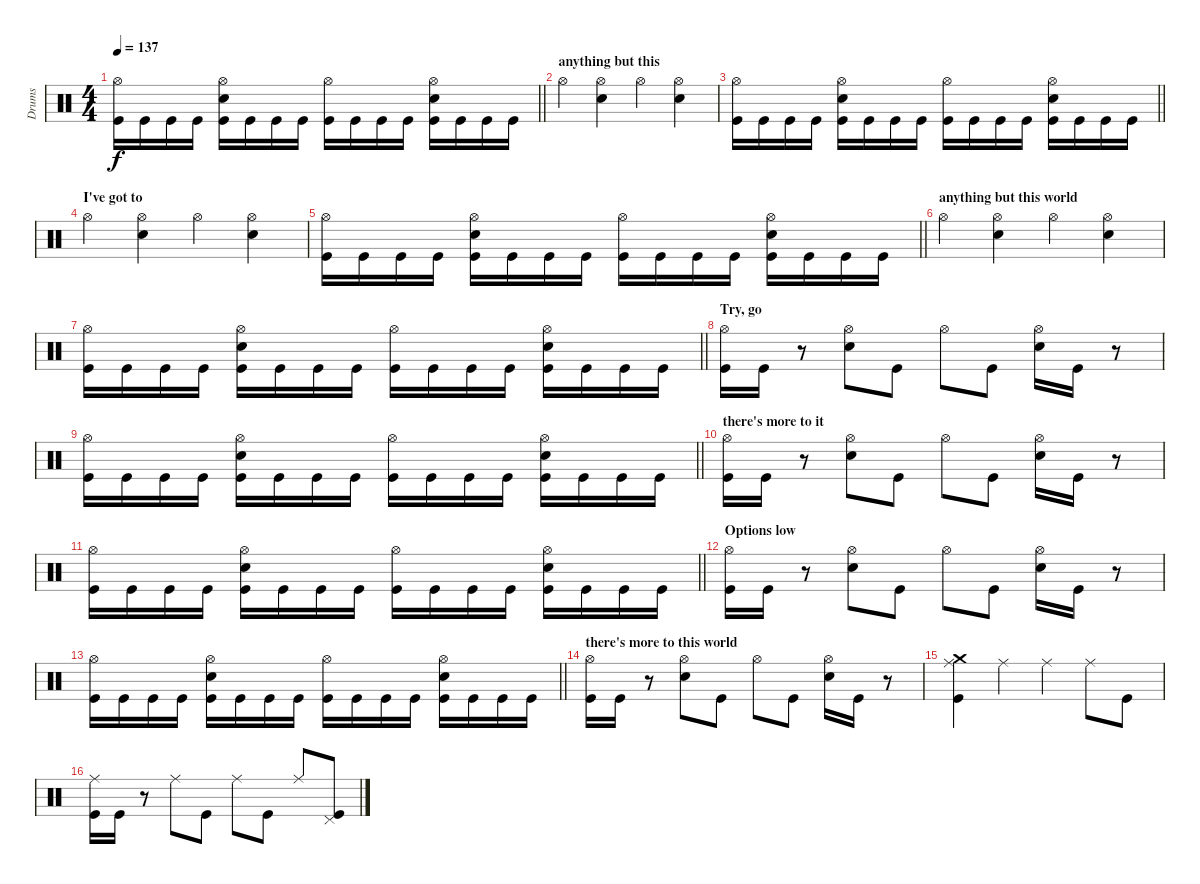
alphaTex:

\track ("Drums" "Drums") {instrument percussion}
\staff {score}
\articulation defaults
\ts (4 4)
\tempo 137
\clef neutral
\barLineRight lightlight
\ks c
("Hi-Hat (open)" "Kick (hit)").16{dy f} "Kick (hit)".16 "Kick (hit)".16 "Kick (hit)".16 ("Hi-Hat (open)" "Snare (hit) 2" "Kick (hit)").16 "Kick (hit)".16 "Kick (hit)".16 "Kick (hit)".16 ("Hi-Hat (open)" "Kick (hit)").16 "Kick (hit)".16 "Kick (hit)".16 "Kick (hit)".16 ("Hi-Hat (open)" "Snare (hit) 2" "Kick (hit)").16 "Kick (hit)".16 "Kick (hit)".16 "Kick (hit)".16 |
\section ("" "anything but this")
"Hi-Hat (open)".4 ("Hi-Hat (open)" "Snare (hit) 2").4 "Hi-Hat (open)".4 ("Hi-Hat (open)" "Snare (hit) 2").4 |
\barLineRight lightlight
("Hi-Hat (open)" "Kick (hit)").16 "Kick (hit)".16 "Kick (hit)".16 "Kick (hit)".16 ("Hi-Hat (open)" "Snare (hit) 2" "Kick (hit)").16 "Kick (hit)".16 "Kick (hit)".16 "Kick (hit)".16 ("Hi-Hat (open)" "Kick (hit)").16 "Kick (hit)".16 "Kick (hit)".16 "Kick (hit)".16 ("Hi-Hat (open)" "Snare (hit) 2" "Kick (hit)").16 "Kick (hit)".16 "Kick (hit)".16 "Kick (hit)".16 |
\section ("" "I've got to ")
"Hi-Hat (open)".4 ("Hi-Hat (open)" "Snare (hit) 2").4 "Hi-Hat (open)".4 ("Hi-Hat (open)" "Snare (hit) 2").4 |
\barLineRight lightlight
("Hi-Hat (open)" "Kick (hit)").16 "Kick (hit)".16 "Kick (hit)".16 "Kick (hit)".16 ("Hi-Hat (open)" "Snare (hit) 2" "Kick (hit)").16 "Kick (hit)".16 "Kick (hit)".16 "Kick (hit)".16 ("Hi-Hat (open)" "Kick (hit)").16 "Kick (hit)".16 "Kick (hit)".16 "Kick (hit)".16 ("Hi-Hat (open)" "Snare (hit) 2" "Kick (hit)").16 "Kick (hit)".16 "Kick (hit)".16 "Kick (hit)".16 |
\section ("" "anything but this world")
"Hi-Hat (open)".4 ("Hi-Hat (open)" "Snare (hit) 2").4 "Hi-Hat (open)".4 ("Hi-Hat (open)" "Snare (hit) 2").4 |
\barLineRight lightlight
("Hi-Hat (open)" "Kick (hit)").16 "Kick (hit)".16 "Kick (hit)".16 "Kick (hit)".16 ("Hi-Hat (open)" "Snare (hit) 2" "Kick (hit)").16 "Kick (hit)".16 "Kick (hit)".16 "Kick (hit)".16 ("Hi-Hat (open)" "Kick (hit)").16 "Kick (hit)".16 "Kick (hit)".16 "Kick (hit)".16 ("Hi-Hat (open)" "Snare (hit) 2" "Kick (hit)").16 "Kick (hit)".16 "Kick (hit)".16 "Kick (hit)".16 |
\section ("" "Try, go ")
("Hi-Hat (open)" "Kick (hit)").16 "Kick (hit)".16 r.8 ("Hi-Hat (open)" "Snare (hit) 2").8 "Kick (hit)".8 "Hi-Hat (open)".8 "Kick (hit)".8 ("Hi-Hat (open)" "Snare (hit) 2").16 "Kick (hit)".16 r.8 |
\barLineRight lightlight
("Hi-Hat (open)" "Kick (hit)").16 "Kick (hit)".16 "Kick (hit)".16 "Kick (hit)".16 ("Hi-Hat (open)" "Snare (hit) 2" "Kick (hit)").16 "Kick (hit)".16 "Kick (hit)".16 "Kick (hit)".16 ("Hi-Hat (open)" "Kick (hit)").16 "Kick (hit)".16 "Kick (hit)".16 "Kick (hit)".16 ("Hi-Hat (open)" "Snare (hit) 2" "Kick (hit)").16 "Kick (hit)".16 "Kick (hit)".16 "Kick (hit)".16 |
\section ("" "there's more to it")
("Hi-Hat (open)" "Kick (hit)").16 "Kick (hit)".16 r.8 ("Hi-Hat (open)" "Snare (hit) 2").8 "Kick (hit)".8 "Hi-Hat (open)".8 "Kick (hit)".8 ("Hi-Hat (open)" "Snare (hit) 2").16 "Kick (hit)".16 r.8 |
\barLineRight lightlight
("Hi-Hat (open)" "Kick (hit)").16 "Kick (hit)".16 "Kick (hit)".16 "Kick (hit)".16 ("Hi-Hat (open)" "Snare (hit) 2" "Kick (hit)").16 "Kick (hit)".16 "Kick (hit)".16 "Kick (hit)".16 ("Hi-Hat (open)" "Kick (hit)").16 "Kick (hit)".16 "Kick (hit)".16 "Kick (hit)".16 ("Hi-Hat (open)" "Snare (hit) 2" "Kick (hit)").16 "Kick (hit)".16 "Kick (hit)".16 "Kick (hit)".16 |
\section ("" "Options low ")
("Hi-Hat (open)" "Kick (hit)").16 "Kick (hit)".16 r.8 ("Hi-Hat (open)" "Snare (hit) 2").8 "Kick (hit)".8 "Hi-Hat (open)".8 "Kick (hit)".8 ("Hi-Hat (open)" "Snare (hit) 2").16 "Kick (hit)".16 r.8 |
\barLineRight lightlight
("Hi-Hat (open)" "Kick (hit)").16 "Kick (hit)".16 "Kick (hit)".16 "Kick (hit)".16 ("Hi-Hat (open)" "Snare (hit) 2" "Kick (hit)").16 "Kick (hit)".16 "Kick (hit)".16 "Kick (hit)".16 ("Hi-Hat (open)" "Kick (hit)").16 "Kick (hit)".16 "Kick (hit)".16 "Kick (hit)".16 ("Hi-Hat (open)" "Snare (hit) 2" "Kick (hit)").16 "Kick (hit)".16 "Kick (hit)".16 "Kick (hit)".16 |
\section ("" "there's more to this world")
("Hi-Hat (open)" "Kick (hit)").16 "Kick (hit)".16 r.8 ("Hi-Hat (open)" "Snare (hit) 2").8 "Kick (hit)".8 "Hi-Hat (open)".8 "Kick (hit)".8 ("Hi-Hat (open)" "Snare (hit) 2").16 "Kick (hit)".16 r.8 |
("Ride (middle)" "Crash medium (hit)" "Kick (hit)").4 "Ride (middle)".4 "Ride (middle)".4 "Ride (middle)".8 "Kick (hit)".8 |
("Ride (middle)" "Kick (hit)").16 "Kick (hit)".16 r.8 "Ride (middle)".8 "Kick (hit)".8 "Ride (middle)".8 "Kick (hit)".8 "Ride (middle)".8 ("Pedal Hi-Hat (hit)" "Kick (hit)").8
